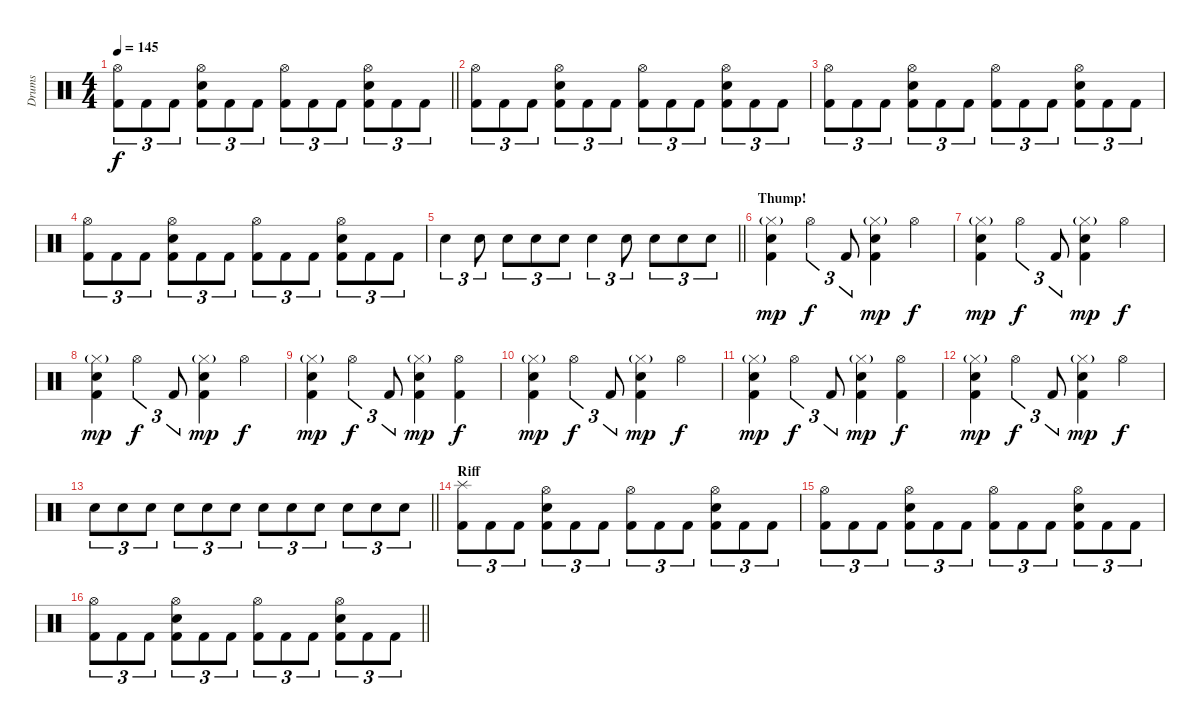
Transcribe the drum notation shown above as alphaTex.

\track ("Drums" "Drums") {instrument percussion}
\staff {score}
\articulation defaults
\ts (4 4)
\tempo 145
\clef neutral
\barLineRight lightlight
\ks c
("Hi-Hat (open)" "Kick (hit) 2").8{tu (3 2) dy f} "Kick (hit) 2".8{tu (3 2)} "Kick (hit) 2".8{tu (3 2)} ("Hi-Hat (open)" "Electric Snare (hit)" "Kick (hit) 2").8{tu (3 2)} "Kick (hit) 2".8{tu (3 2)} "Kick (hit) 2".8{tu (3 2)} ("Hi-Hat (open)" "Kick (hit) 2").8{tu (3 2)} "Kick (hit) 2".8{tu (3 2)} "Kick (hit) 2".8{tu (3 2)} ("Hi-Hat (open)" "Electric Snare (hit)" "Kick (hit) 2").8{tu (3 2)} "Kick (hit) 2".8{tu (3 2)} "Kick (hit) 2".8{tu (3 2)} |
\section ("" "")
("Hi-Hat (open)" "Kick (hit) 2").8{tu (3 2)} "Kick (hit) 2".8{tu (3 2)} "Kick (hit) 2".8{tu (3 2)} ("Hi-Hat (open)" "Electric Snare (hit)" "Kick (hit) 2").8{tu (3 2)} "Kick (hit) 2".8{tu (3 2)} "Kick (hit) 2".8{tu (3 2)} ("Hi-Hat (open)" "Kick (hit) 2").8{tu (3 2)} "Kick (hit) 2".8{tu (3 2)} "Kick (hit) 2".8{tu (3 2)} ("Hi-Hat (open)" "Electric Snare (hit)" "Kick (hit) 2").8{tu (3 2)} "Kick (hit) 2".8{tu (3 2)} "Kick (hit) 2".8{tu (3 2)} |
("Hi-Hat (open)" "Kick (hit) 2").8{tu (3 2)} "Kick (hit) 2".8{tu (3 2)} "Kick (hit) 2".8{tu (3 2)} ("Hi-Hat (open)" "Electric Snare (hit)" "Kick (hit) 2").8{tu (3 2)} "Kick (hit) 2".8{tu (3 2)} "Kick (hit) 2".8{tu (3 2)} ("Hi-Hat (open)" "Kick (hit) 2").8{tu (3 2)} "Kick (hit) 2".8{tu (3 2)} "Kick (hit) 2".8{tu (3 2)} ("Hi-Hat (open)" "Electric Snare (hit)" "Kick (hit) 2").8{tu (3 2)} "Kick (hit) 2".8{tu (3 2)} "Kick (hit) 2".8{tu (3 2)} |
("Hi-Hat (open)" "Kick (hit) 2").8{tu (3 2)} "Kick (hit) 2".8{tu (3 2)} "Kick (hit) 2".8{tu (3 2)} ("Hi-Hat (open)" "Electric Snare (hit)" "Kick (hit) 2").8{tu (3 2)} "Kick (hit) 2".8{tu (3 2)} "Kick (hit) 2".8{tu (3 2)} ("Hi-Hat (open)" "Kick (hit) 2").8{tu (3 2)} "Kick (hit) 2".8{tu (3 2)} "Kick (hit) 2".8{tu (3 2)} ("Hi-Hat (open)" "Electric Snare (hit)" "Kick (hit) 2").8{tu (3 2)} "Kick (hit) 2".8{tu (3 2)} "Kick (hit) 2".8{tu (3 2)} |
\barLineRight lightlight "Electric Snare (hit)".4{tu (3 2)} "Electric Snare (hit)".8{tu (3 2)} "Electric Snare (hit)".8{tu (3 2)} "Electric Snare (hit)".8{tu (3 2)} "Electric Snare (hit)".8{tu (3 2)} "Electric Snare (hit)".4{tu (3 2)} "Electric Snare (hit)".8{tu (3 2)} "Electric Snare (hit)".8{tu (3 2)} "Electric Snare (hit)".8{tu (3 2)} "Electric Snare (hit)".8{tu (3 2)}
|
\section ("" "Thump!")
("Hi-Hat (closed)"{g} "Electric Snare (hit)" "Kick (hit) 2").4{dy mp} "Hi-Hat (open)".4{tu (3 2) dy f} "Kick (hit) 2".8{tu (3 2)} ("Hi-Hat (closed)"{g} "Electric Snare (hit)" "Kick (hit) 2").4{dy mp} "Hi-Hat (open)".4{dy f} |
("Hi-Hat (closed)"{g} "Electric Snare (hit)" "Kick (hit) 2").4{dy mp} "Hi-Hat (open)".4{tu (3 2) dy f} "Kick (hit) 2".8{tu (3 2)} ("Hi-Hat (closed)"{g} "Electric Snare (hit)" "Kick (hit) 2").4{dy mp} "Hi-Hat (open)".4{dy f} |
("Hi-Hat (closed)"{g} "Electric Snare (hit)" "Kick (hit) 2").4{dy mp} "Hi-Hat (open)".4{tu (3 2) dy f} "Kick (hit) 2".8{tu (3 2)} ("Hi-Hat (closed)"{g} "Electric Snare (hit)" "Kick (hit) 2").4{dy mp} "Hi-Hat (open)".4{dy f} |
("Hi-Hat (closed)"{g} "Electric Snare (hit)" "Kick (hit) 2").4{dy mp} "Hi-Hat (open)".4{tu (3 2) dy f} "Kick (hit) 2".8{tu (3 2)} ("Hi-Hat (closed)"{g} "Electric Snare (hit)" "Kick (hit) 2").4{dy mp} ("Hi-Hat (open)" "Kick (hit) 2").4{dy f} |
("Hi-Hat (closed)"{g} "Electric Snare (hit)" "Kick (hit) 2").4{dy mp} "Hi-Hat (open)".4{tu (3 2) dy f} "Kick (hit) 2".8{tu (3 2)} ("Hi-Hat (closed)"{g} "Electric Snare (hit)" "Kick (hit) 2").4{dy mp} "Hi-Hat (open)".4{dy f} |
("Hi-Hat (closed)"{g} "Electric Snare (hit)" "Kick (hit) 2").4{dy mp} "Hi-Hat (open)".4{tu (3 2) dy f} "Kick (hit) 2".8{tu (3 2)} ("Hi-Hat (closed)"{g} "Electric Snare (hit)" "Kick (hit) 2").4{dy mp} ("Hi-Hat (open)" "Kick (hit) 2").4{dy f} |
("Hi-Hat (closed)"{g} "Electric Snare (hit)" "Kick (hit) 2").4{dy mp} "Hi-Hat (open)".4{tu (3 2) dy f} "Kick (hit) 2".8{tu (3 2)} ("Hi-Hat (closed)"{g} "Electric Snare (hit)" "Kick (hit) 2").4{dy mp} "Hi-Hat (open)".4{dy f} |
\barLineRight lightlight "Electric Snare (hit)".8{tu (3 2)} "Electric Snare (hit)".8{tu (3 2)} "Electric Snare (hit)".8{tu (3 2)} "Electric Snare (hit)".8{tu (3 2)} "Electric Snare (hit)".8{tu (3 2)} "Electric Snare (hit)".8{tu (3 2)} "Electric Snare (hit)".8{tu (3 2)} "Electric Snare (hit)".8{tu (3 2)} "Electric Snare (hit)".8{tu (3 2)} "Electric Snare (hit)".8{tu (3 2)} "Electric Snare (hit)".8{tu (3 2)} "Electric Snare (hit)".8{tu (3 2)}
|
\section ("" "Riff")
("Splash (hit)" "Kick (hit) 2").8{tu (3 2)} "Kick (hit) 2".8{tu (3 2)} "Kick (hit) 2".8{tu (3 2)} ("Hi-Hat (open)" "Electric Snare (hit)" "Kick (hit) 2").8{tu (3 2)} "Kick (hit) 2".8{tu (3 2)} "Kick (hit) 2".8{tu (3 2)} ("Hi-Hat (open)" "Kick (hit) 2").8{tu (3 2)} "Kick (hit) 2".8{tu (3 2)} "Kick (hit) 2".8{tu (3 2)} ("Hi-Hat (open)" "Electric Snare (hit)" "Kick (hit) 2").8{tu (3 2)} "Kick (hit) 2".8{tu (3 2)} "Kick (hit) 2".8{tu (3 2)} |
("Hi-Hat (open)" "Kick (hit) 2").8{tu (3 2)} "Kick (hit) 2".8{tu (3 2)} "Kick (hit) 2".8{tu (3 2)} ("Hi-Hat (open)" "Electric Snare (hit)" "Kick (hit) 2").8{tu (3 2)} "Kick (hit) 2".8{tu (3 2)} "Kick (hit) 2".8{tu (3 2)} ("Hi-Hat (open)" "Kick (hit) 2").8{tu (3 2)} "Kick (hit) 2".8{tu (3 2)} "Kick (hit) 2".8{tu (3 2)} ("Hi-Hat (open)" "Electric Snare (hit)" "Kick (hit) 2").8{tu (3 2)} "Kick (hit) 2".8{tu (3 2)} "Kick (hit) 2".8{tu (3 2)} |
\barLineRight lightlight
("Hi-Hat (open)" "Kick (hit) 2").8{tu (3 2)} "Kick (hit) 2".8{tu (3 2)} "Kick (hit) 2".8{tu (3 2)} ("Hi-Hat (open)" "Electric Snare (hit)" "Kick (hit) 2").8{tu (3 2)} "Kick (hit) 2".8{tu (3 2)} "Kick (hit) 2".8{tu (3 2)} ("Hi-Hat (open)" "Kick (hit) 2").8{tu (3 2)} "Kick (hit) 2".8{tu (3 2)} "Kick (hit) 2".8{tu (3 2)} ("Hi-Hat (open)" "Electric Snare (hit)" "Kick (hit) 2").8{tu (3 2)} "Kick (hit) 2".8{tu (3 2)} "Kick (hit) 2".8{tu (3 2)}
